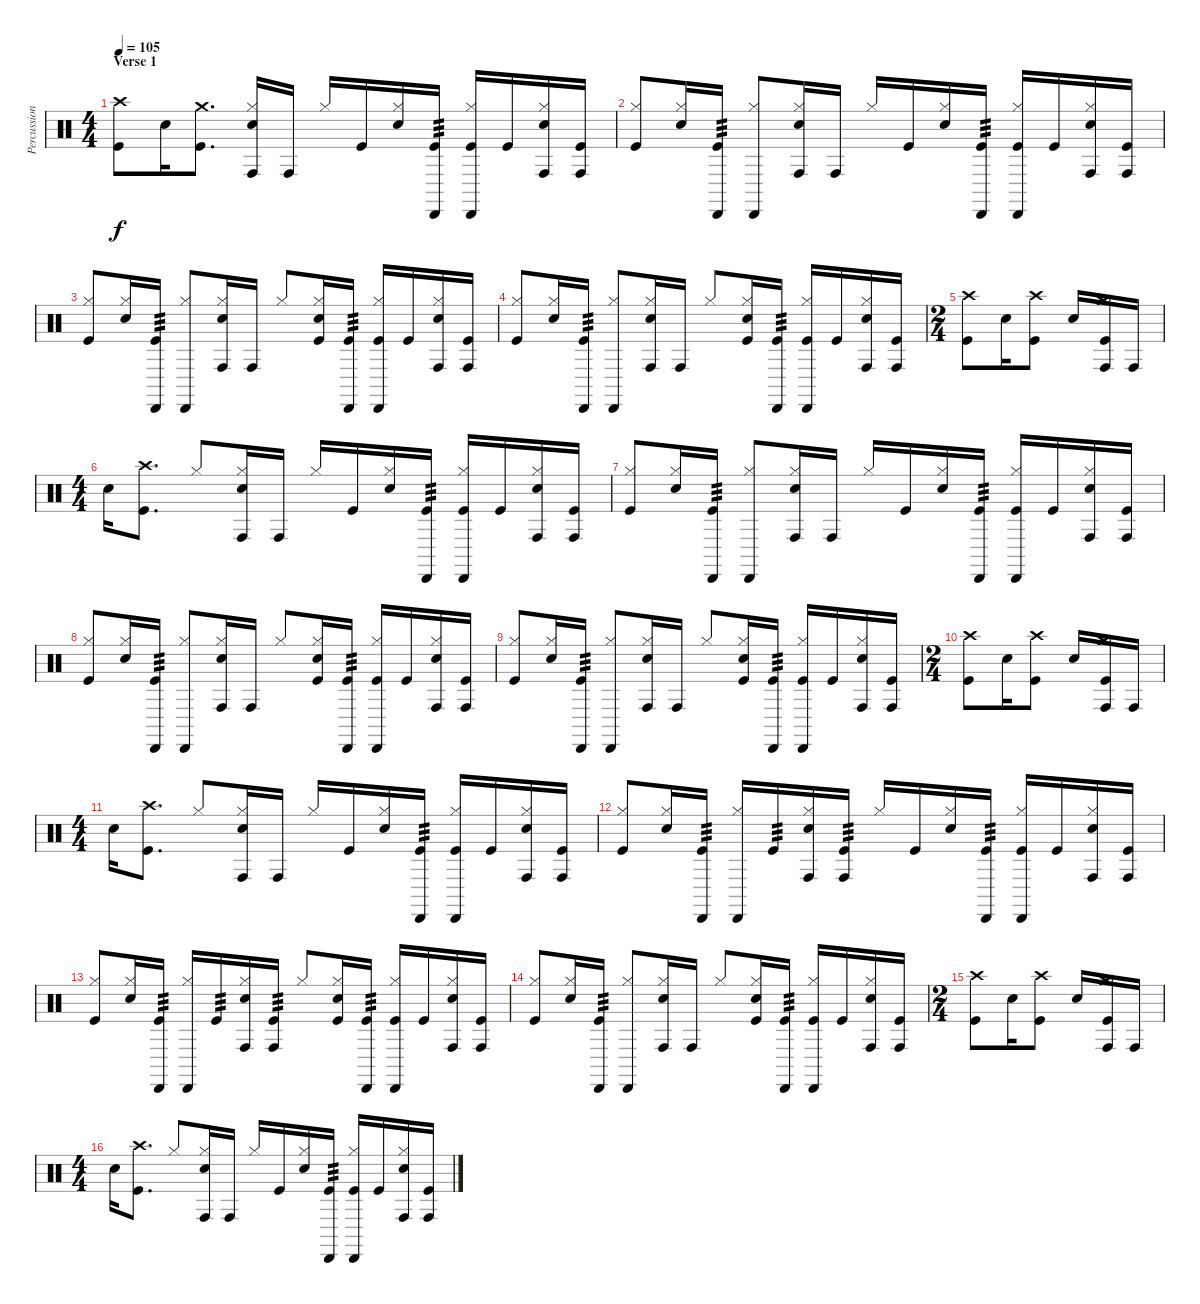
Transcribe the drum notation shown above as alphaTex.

\track ("Percussion" "Percussion") {instrument percussion}
\staff {score}
\articulation defaults
\ts (4 4)
\section ("" "Verse 1")
\tempo 105
\clef neutral
\ks c
("Crash high (hit)" "Kick (hit)").8{dy f} "Snare (hit) 2".16 ("Crash medium (hit)" "Kick (hit)").8{d} ("Hi-Hat (closed)" "Snare (hit) 2" "Conga high (hit)").16 "Conga high (hit)".16 "Hi-Hat (closed)".16 "Kick (hit)".16 ("Hi-Hat (closed)" "Snare (hit) 2").16 ("Cabasa (hit)" "Kick (hit)").16{tp 3} ("Hi-Hat (closed)" "Cabasa (hit)" "Kick (hit)").16 "Kick (hit)".16 ("Hi-Hat (closed)" "Snare (hit) 2" "Conga high (hit)").16 ("Conga high (hit)" "Kick (hit)").16 |
("Hi-Hat (closed)" "Kick (hit)").8 ("Hi-Hat (closed)" "Snare (hit) 2").16 ("Cabasa (hit)" "Kick (hit)").16{tp 3} ("Hi-Hat (closed)" "Cabasa (hit)").8 ("Hi-Hat (closed)" "Snare (hit) 2" "Conga high (hit)").16 "Conga high (hit)".16 "Hi-Hat (closed)".16 "Kick (hit)".16 ("Hi-Hat (closed)" "Snare (hit) 2").16 ("Cabasa (hit)" "Kick (hit)").16{tp 3} ("Hi-Hat (closed)" "Cabasa (hit)" "Kick (hit)").16 "Kick (hit)".16 ("Hi-Hat (closed)" "Snare (hit) 2" "Conga high (hit)").16 ("Conga high (hit)" "Kick (hit)").16 |
("Hi-Hat (closed)" "Kick (hit)").8 ("Hi-Hat (closed)" "Snare (hit) 2").16 ("Cabasa (hit)" "Kick (hit)").16{tp 3} ("Hi-Hat (closed)" "Cabasa (hit)").8 ("Hi-Hat (closed)" "Snare (hit) 2" "Conga high (hit)").16 "Conga high (hit)".16 "Hi-Hat (closed)".8 ("Hi-Hat (closed)" "Snare (hit) 2" "Kick (hit)").16 ("Cabasa (hit)" "Kick (hit)").16{tp 3} ("Hi-Hat (closed)" "Cabasa (hit)" "Kick (hit)").16 "Kick (hit)".16 ("Hi-Hat (closed)" "Snare (hit) 2" "Conga high (hit)").16 ("Conga high (hit)" "Kick (hit)").16 |
("Hi-Hat (closed)" "Kick (hit)").8 ("Hi-Hat (closed)" "Snare (hit) 2").16 ("Cabasa (hit)" "Kick (hit)").16{tp 3} ("Hi-Hat (closed)" "Cabasa (hit)").8 ("Hi-Hat (closed)" "Snare (hit) 2" "Conga high (hit)").16 "Conga high (hit)".16 "Hi-Hat (closed)".8 ("Hi-Hat (closed)" "Snare (hit) 2" "Kick (hit)").16 ("Cabasa (hit)" "Kick (hit)").16{tp 3} ("Hi-Hat (closed)" "Cabasa (hit)" "Kick (hit)").16 "Kick (hit)".16 ("Hi-Hat (closed)" "Snare (hit) 2" "Conga high (hit)").16 ("Conga high (hit)" "Kick (hit)").16 |
\ts (2 4)
("Crash high (hit)" "Kick (hit)").8 "Snare (hit) 2".16 ("Crash high (hit)" "Kick (hit)").8 "Snare (hit) 2".16 ("Crash medium (hit)" "Conga high (hit)" "Kick (hit)").16 "Conga high (hit)".16 |
\ts (4 4)
"Snare (hit) 2".16 ("Crash high (hit)" "Kick (hit)").8{d} "Hi-Hat (closed)".8 ("Hi-Hat (closed)" "Snare (hit) 2" "Conga high (hit)").16 "Conga high (hit)".16 "Hi-Hat (closed)".16 "Kick (hit)".16 ("Hi-Hat (closed)" "Snare (hit) 2").16 ("Cabasa (hit)" "Kick (hit)").16{tp 3} ("Hi-Hat (closed)" "Cabasa (hit)" "Kick (hit)").16 "Kick (hit)".16 ("Hi-Hat (closed)" "Snare (hit) 2" "Conga high (hit)").16 ("Conga high (hit)" "Kick (hit)").16 |
("Hi-Hat (closed)" "Kick (hit)").8 ("Hi-Hat (closed)" "Snare (hit) 2").16 ("Cabasa (hit)" "Kick (hit)").16{tp 3} ("Hi-Hat (closed)" "Cabasa (hit)").8 ("Hi-Hat (closed)" "Snare (hit) 2" "Conga high (hit)").16 "Conga high (hit)".16 "Hi-Hat (closed)".16 "Kick (hit)".16 ("Hi-Hat (closed)" "Snare (hit) 2").16 ("Cabasa (hit)" "Kick (hit)").16{tp 3} ("Hi-Hat (closed)" "Cabasa (hit)" "Kick (hit)").16 "Kick (hit)".16 ("Hi-Hat (closed)" "Snare (hit) 2" "Conga high (hit)").16 ("Conga high (hit)" "Kick (hit)").16 |
("Hi-Hat (closed)" "Kick (hit)").8 ("Hi-Hat (closed)" "Snare (hit) 2").16 ("Cabasa (hit)" "Kick (hit)").16{tp 3} ("Hi-Hat (closed)" "Cabasa (hit)").8 ("Hi-Hat (closed)" "Snare (hit) 2" "Conga high (hit)").16 "Conga high (hit)".16 "Hi-Hat (closed)".8 ("Hi-Hat (closed)" "Snare (hit) 2" "Kick (hit)").16 ("Cabasa (hit)" "Kick (hit)").16{tp 3} ("Hi-Hat (closed)" "Cabasa (hit)" "Kick (hit)").16 "Kick (hit)".16 ("Hi-Hat (closed)" "Snare (hit) 2" "Conga high (hit)").16 ("Conga high (hit)" "Kick (hit)").16 |
("Hi-Hat (closed)" "Kick (hit)").8 ("Hi-Hat (closed)" "Snare (hit) 2").16 ("Cabasa (hit)" "Kick (hit)").16{tp 3} ("Hi-Hat (closed)" "Cabasa (hit)").8 ("Hi-Hat (closed)" "Snare (hit) 2" "Conga high (hit)").16 "Conga high (hit)".16 "Hi-Hat (closed)".8 ("Hi-Hat (closed)" "Snare (hit) 2" "Kick (hit)").16 ("Cabasa (hit)" "Kick (hit)").16{tp 3} ("Hi-Hat (closed)" "Cabasa (hit)" "Kick (hit)").16 "Kick (hit)".16 ("Hi-Hat (closed)" "Snare (hit) 2" "Conga high (hit)").16 ("Conga high (hit)" "Kick (hit)").16 |
\ts (2 4)
("Crash high (hit)" "Kick (hit)").8 "Snare (hit) 2".16 ("Crash high (hit)" "Kick (hit)").8 "Snare (hit) 2".16 ("Crash medium (hit)" "Conga high (hit)" "Kick (hit)").16 "Conga high (hit)".16 |
\ts (4 4)
"Snare (hit) 2".16 ("Crash high (hit)" "Kick (hit)").8{d} "Hi-Hat (closed)".8 ("Hi-Hat (closed)" "Snare (hit) 2" "Conga high (hit)").16 "Conga high (hit)".16 "Hi-Hat (closed)".16 "Kick (hit)".16 ("Hi-Hat (closed)" "Snare (hit) 2").16 ("Cabasa (hit)" "Kick (hit)").16{tp 3} ("Hi-Hat (closed)" "Cabasa (hit)" "Kick (hit)").16 "Kick (hit)".16 ("Hi-Hat (closed)" "Snare (hit) 2" "Conga high (hit)").16 ("Conga high (hit)" "Kick (hit)").16 |
("Hi-Hat (closed)" "Kick (hit)").8 ("Hi-Hat (closed)" "Snare (hit) 2").16 ("Cabasa (hit)" "Kick (hit)").16{tp 3} ("Hi-Hat (closed)" "Cabasa (hit)").16 "Kick (hit)".16{tp 3} ("Hi-Hat (closed)" "Snare (hit) 2" "Conga high (hit)").16 ("Conga high (hit)" "Kick (hit)").16{tp 3} "Hi-Hat (closed)".16 "Kick (hit)".16 ("Hi-Hat (closed)" "Snare (hit) 2").16 ("Cabasa (hit)" "Kick (hit)").16{tp 3} ("Hi-Hat (closed)" "Cabasa (hit)" "Kick (hit)").16 "Kick (hit)".16 ("Hi-Hat (closed)" "Snare (hit) 2" "Conga high (hit)").16 ("Conga high (hit)" "Kick (hit)").16 |
("Hi-Hat (closed)" "Kick (hit)").8 ("Hi-Hat (closed)" "Snare (hit) 2").16 ("Cabasa (hit)" "Kick (hit)").16{tp 3} ("Hi-Hat (closed)" "Cabasa (hit)").16 "Kick (hit)".16{tp 3} ("Hi-Hat (closed)" "Snare (hit) 2" "Conga high (hit)").16 ("Conga high (hit)" "Kick (hit)").16{tp 3} "Hi-Hat (closed)".8 ("Hi-Hat (closed)" "Snare (hit) 2" "Kick (hit)").16 ("Cabasa (hit)" "Kick (hit)").16{tp 3} ("Hi-Hat (closed)" "Cabasa (hit)" "Kick (hit)").16 "Kick (hit)".16 ("Hi-Hat (closed)" "Snare (hit) 2" "Conga high (hit)").16 ("Conga high (hit)" "Kick (hit)").16 |
("Hi-Hat (closed)" "Kick (hit)").8 ("Hi-Hat (closed)" "Snare (hit) 2").16 ("Cabasa (hit)" "Kick (hit)").16{tp 3} ("Hi-Hat (closed)" "Cabasa (hit)").8 ("Hi-Hat (closed)" "Snare (hit) 2" "Conga high (hit)").16 "Conga high (hit)".16 "Hi-Hat (closed)".8 ("Hi-Hat (closed)" "Snare (hit) 2" "Kick (hit)").16 ("Cabasa (hit)" "Kick (hit)").16{tp 3} ("Hi-Hat (closed)" "Cabasa (hit)" "Kick (hit)").16 "Kick (hit)".16 ("Hi-Hat (closed)" "Snare (hit) 2" "Conga high (hit)").16 ("Conga high (hit)" "Kick (hit)").16 |
\ts (2 4)
("Crash high (hit)" "Kick (hit)").8 "Snare (hit) 2".16 ("Crash high (hit)" "Kick (hit)").8 "Snare (hit) 2".16 ("Crash medium (hit)" "Conga high (hit)" "Kick (hit)").16 "Conga high (hit)".16 |
\ts (4 4)
"Snare (hit) 2".16 ("Crash high (hit)" "Kick (hit)").8{d} "Hi-Hat (closed)".8 ("Hi-Hat (closed)" "Snare (hit) 2" "Conga high (hit)").16 "Conga high (hit)".16 "Hi-Hat (closed)".16 "Kick (hit)".16 ("Hi-Hat (closed)" "Snare (hit) 2").16 ("Cabasa (hit)" "Kick (hit)").16{tp 3} ("Hi-Hat (closed)" "Cabasa (hit)" "Kick (hit)").16 "Kick (hit)".16 ("Hi-Hat (closed)" "Snare (hit) 2" "Conga high (hit)").16 ("Conga high (hit)" "Kick (hit)").16
